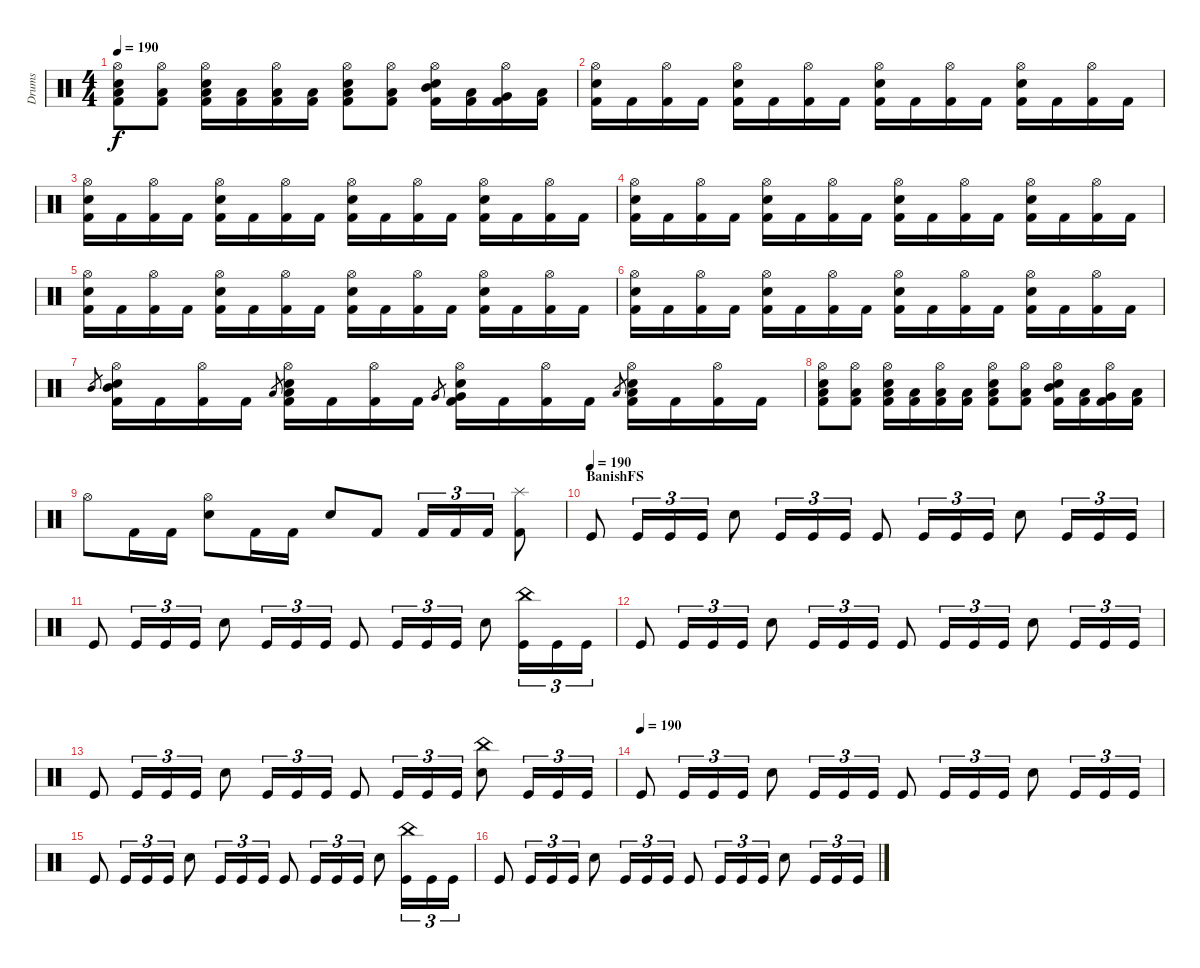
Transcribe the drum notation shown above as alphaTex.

\track ("Drums" "Drums") {instrument percussion}
\staff {score}
\articulation defaults
\ts (4 4)
\tempo 190
\clef neutral
\ks c
("Hi-Hat (open)" "Low Floor Tom (hit)" "Electric Snare (hit)" "Kick (hit) 2").8{dy f} ("Hi-Hat (open)" "Low Floor Tom (hit)" "Kick (hit) 2").8 ("Hi-Hat (open)" "Low Floor Tom (hit)" "Electric Snare (hit)" "Kick (hit) 2").16 ("Low Floor Tom (hit)" "Kick (hit) 2").16 ("Hi-Hat (open)" "Low Floor Tom (hit)" "Kick (hit) 2").16 ("Low Floor Tom (hit)" "Kick (hit) 2").16 ("Hi-Hat (open)" "Low Floor Tom (hit)" "Electric Snare (hit)" "Kick (hit) 2").8 ("Hi-Hat (open)" "Low Floor Tom (hit)" "Kick (hit) 2").8 ("Hi-Hat (open)" "Mid Tom (hit)" "Electric Snare (hit)" "Kick (hit) 2").16 ("Low Tom (hit)" "Kick (hit) 2").16 ("Hi-Hat (open)" "Very Low Tom (hit)" "Kick (hit) 2").16 ("Low Floor Tom (hit)" "Kick (hit) 2").16 |
("Hi-Hat (open)" "Electric Snare (hit)" "Kick (hit) 2").16 "Kick (hit) 2".16 ("Hi-Hat (open)" "Kick (hit) 2").16 "Kick (hit) 2".16 ("Hi-Hat (open)" "Electric Snare (hit)" "Kick (hit) 2").16 "Kick (hit) 2".16 ("Hi-Hat (open)" "Kick (hit) 2").16 "Kick (hit) 2".16 ("Hi-Hat (open)" "Electric Snare (hit)" "Kick (hit) 2").16 "Kick (hit) 2".16 ("Hi-Hat (open)" "Kick (hit) 2").16 "Kick (hit) 2".16 ("Hi-Hat (open)" "Electric Snare (hit)" "Kick (hit) 2").16 "Kick (hit) 2".16 ("Hi-Hat (open)" "Kick (hit) 2").16 "Kick (hit) 2".16 |
("Hi-Hat (open)" "Electric Snare (hit)" "Kick (hit) 2").16 "Kick (hit) 2".16 ("Hi-Hat (open)" "Kick (hit) 2").16 "Kick (hit) 2".16 ("Hi-Hat (open)" "Electric Snare (hit)" "Kick (hit) 2").16 "Kick (hit) 2".16 ("Hi-Hat (open)" "Kick (hit) 2").16 "Kick (hit) 2".16 ("Hi-Hat (open)" "Electric Snare (hit)" "Kick (hit) 2").16 "Kick (hit) 2".16 ("Hi-Hat (open)" "Kick (hit) 2").16 "Kick (hit) 2".16 ("Hi-Hat (open)" "Electric Snare (hit)" "Kick (hit) 2").16 "Kick (hit) 2".16 ("Hi-Hat (open)" "Kick (hit) 2").16 "Kick (hit) 2".16 |
("Hi-Hat (open)" "Electric Snare (hit)" "Kick (hit) 2").16 "Kick (hit) 2".16 ("Hi-Hat (open)" "Kick (hit) 2").16 "Kick (hit) 2".16 ("Hi-Hat (open)" "Electric Snare (hit)" "Kick (hit) 2").16 "Kick (hit) 2".16 ("Hi-Hat (open)" "Kick (hit) 2").16 "Kick (hit) 2".16 ("Hi-Hat (open)" "Electric Snare (hit)" "Kick (hit) 2").16 "Kick (hit) 2".16 ("Hi-Hat (open)" "Kick (hit) 2").16 "Kick (hit) 2".16 ("Hi-Hat (open)" "Electric Snare (hit)" "Kick (hit) 2").16 "Kick (hit) 2".16 ("Hi-Hat (open)" "Kick (hit) 2").16 "Kick (hit) 2".16 |
("Hi-Hat (open)" "Electric Snare (hit)" "Kick (hit) 2").16 "Kick (hit) 2".16 ("Hi-Hat (open)" "Kick (hit) 2").16 "Kick (hit) 2".16 ("Hi-Hat (open)" "Electric Snare (hit)" "Kick (hit) 2").16 "Kick (hit) 2".16 ("Hi-Hat (open)" "Kick (hit) 2").16 "Kick (hit) 2".16 ("Hi-Hat (open)" "Electric Snare (hit)" "Kick (hit) 2").16 "Kick (hit) 2".16 ("Hi-Hat (open)" "Kick (hit) 2").16 "Kick (hit) 2".16 ("Hi-Hat (open)" "Electric Snare (hit)" "Kick (hit) 2").16 "Kick (hit) 2".16 ("Hi-Hat (open)" "Kick (hit) 2").16 "Kick (hit) 2".16 |
("Hi-Hat (open)" "Electric Snare (hit)" "Kick (hit) 2").16 "Kick (hit) 2".16 ("Hi-Hat (open)" "Kick (hit) 2").16 "Kick (hit) 2".16 ("Hi-Hat (open)" "Electric Snare (hit)" "Kick (hit) 2").16 "Kick (hit) 2".16 ("Hi-Hat (open)" "Kick (hit) 2").16 "Kick (hit) 2".16 ("Hi-Hat (open)" "Electric Snare (hit)" "Kick (hit) 2").16 "Kick (hit) 2".16 ("Hi-Hat (open)" "Kick (hit) 2").16 "Kick (hit) 2".16 ("Hi-Hat (open)" "Electric Snare (hit)" "Kick (hit) 2").16 "Kick (hit) 2".16 ("Hi-Hat (open)" "Kick (hit) 2").16 "Kick (hit) 2".16 |
"Mid Tom (hit)".8{gr} ("Hi-Hat (open)" "Mid Tom (hit)" "Electric Snare (hit)" "Kick (hit) 2").16 "Kick (hit) 2".16 ("Hi-Hat (open)" "Kick (hit) 2").16 "Kick (hit) 2".16 "Low Tom (hit)".8{gr} ("Hi-Hat (open)" "Low Tom (hit)" "Electric Snare (hit)" "Kick (hit) 2").16 "Kick (hit) 2".16 ("Hi-Hat (open)" "Kick (hit) 2").16 "Kick (hit) 2".16 "Very Low Tom (hit)".8{gr} ("Hi-Hat (open)" "Very Low Tom (hit)" "Electric Snare (hit)" "Kick (hit) 2").16 "Kick (hit) 2".16 ("Hi-Hat (open)" "Kick (hit) 2").16 "Kick (hit) 2".16 "Low Floor Tom (hit)".8{gr} ("Hi-Hat (open)" "Low Floor Tom (hit)" "Electric Snare (hit)" "Kick (hit) 2").16 "Kick (hit) 2".16 ("Hi-Hat (open)" "Kick (hit) 2").16 "Kick (hit) 2".16 |
("Hi-Hat (open)" "Low Floor Tom (hit)" "Electric Snare (hit)" "Kick (hit) 2").8 ("Hi-Hat (open)" "Low Floor Tom (hit)" "Kick (hit) 2").8 ("Hi-Hat (open)" "Low Floor Tom (hit)" "Electric Snare (hit)" "Kick (hit) 2").16 ("Low Floor Tom (hit)" "Kick (hit) 2").16 ("Hi-Hat (open)" "Low Floor Tom (hit)" "Kick (hit) 2").16 ("Low Floor Tom (hit)" "Kick (hit) 2").16 ("Hi-Hat (open)" "Low Floor Tom (hit)" "Electric Snare (hit)" "Kick (hit) 2").8 ("Hi-Hat (open)" "Low Floor Tom (hit)" "Kick (hit) 2").8 ("Hi-Hat (open)" "Mid Tom (hit)" "Electric Snare (hit)" "Kick (hit) 2").16 ("Low Tom (hit)" "Kick (hit) 2").16 ("Hi-Hat (open)" "Very Low Tom (hit)" "Kick (hit) 2").16 ("Low Floor Tom (hit)" "Kick (hit) 2").16 |
"Hi-Hat (open)".8 "Kick (hit) 2".16 "Kick (hit) 2".16 ("Snare (hit) 2" "Hi-Hat (open)").8 "Kick (hit) 2".16 "Kick (hit) 2".16 "Snare (hit) 2".8 "Kick (hit) 2".8 "Kick (hit) 2".16{tu (3 2)} "Kick (hit) 2".16{tu (3 2)} "Kick (hit) 2".16{tu (3 2)} ("Kick (hit) 2" "Splash (hit)").8 |
\section ("" "BanishFS")
\tempo (190)
"Kick (hit)".8 "Kick (hit)".16{tu (3 2)} "Kick (hit)".16{tu (3 2)} "Kick (hit)".16{tu (3 2)} "Snare (hit) 2".8 "Kick (hit)".16{tu (3 2)} "Kick (hit)".16{tu (3 2)} "Kick (hit)".16{tu (3 2)} "Kick (hit)".8 "Kick (hit)".16{tu (3 2)} "Kick (hit)".16{tu (3 2)} "Kick (hit)".16{tu (3 2)} "Snare (hit) 2".8 "Kick (hit)".16{tu (3 2)} "Kick (hit)".16{tu (3 2)} "Kick (hit)".16{tu (3 2)} |
"Kick (hit)".8 "Kick (hit)".16{tu (3 2)} "Kick (hit)".16{tu (3 2)} "Kick (hit)".16{tu (3 2)} "Snare (hit) 2".8 "Kick (hit)".16{tu (3 2)} "Kick (hit)".16{tu (3 2)} "Kick (hit)".16{tu (3 2)} "Kick (hit)".8 "Kick (hit)".16{tu (3 2)} "Kick (hit)".16{tu (3 2)} "Kick (hit)".16{tu (3 2)} "Snare (hit) 2".8 ("Kick (hit)" "China (hit)").16{tu (3 2)} "Kick (hit)".16{tu (3 2)} "Kick (hit)".16{tu (3 2)} |
"Kick (hit)".8 "Kick (hit)".16{tu (3 2)} "Kick (hit)".16{tu (3 2)} "Kick (hit)".16{tu (3 2)} "Snare (hit) 2".8 "Kick (hit)".16{tu (3 2)} "Kick (hit)".16{tu (3 2)} "Kick (hit)".16{tu (3 2)} "Kick (hit)".8 "Kick (hit)".16{tu (3 2)} "Kick (hit)".16{tu (3 2)} "Kick (hit)".16{tu (3 2)} "Snare (hit) 2".8 "Kick (hit)".16{tu (3 2)} "Kick (hit)".16{tu (3 2)} "Kick (hit)".16{tu (3 2)} |
"Kick (hit)".8 "Kick (hit)".16{tu (3 2)} "Kick (hit)".16{tu (3 2)} "Kick (hit)".16{tu (3 2)} "Snare (hit) 2".8 "Kick (hit)".16{tu (3 2)} "Kick (hit)".16{tu (3 2)} "Kick (hit)".16{tu (3 2)} "Kick (hit)".8 "Kick (hit)".16{tu (3 2)} "Kick (hit)".16{tu (3 2)} "Kick (hit)".16{tu (3 2)} ("Snare (hit) 2" "China (hit)").8 "Kick (hit)".16{tu (3 2)} "Kick (hit)".16{tu (3 2)} "Kick (hit)".16{tu (3 2)} |
\tempo (190)
"Kick (hit)".8 "Kick (hit)".16{tu (3 2)} "Kick (hit)".16{tu (3 2)} "Kick (hit)".16{tu (3 2)} "Snare (hit) 2".8 "Kick (hit)".16{tu (3 2)} "Kick (hit)".16{tu (3 2)} "Kick (hit)".16{tu (3 2)} "Kick (hit)".8 "Kick (hit)".16{tu (3 2)} "Kick (hit)".16{tu (3 2)} "Kick (hit)".16{tu (3 2)} "Snare (hit) 2".8 "Kick (hit)".16{tu (3 2)} "Kick (hit)".16{tu (3 2)} "Kick (hit)".16{tu (3 2)} |
"Kick (hit)".8 "Kick (hit)".16{tu (3 2)} "Kick (hit)".16{tu (3 2)} "Kick (hit)".16{tu (3 2)} "Snare (hit) 2".8 "Kick (hit)".16{tu (3 2)} "Kick (hit)".16{tu (3 2)} "Kick (hit)".16{tu (3 2)} "Kick (hit)".8 "Kick (hit)".16{tu (3 2)} "Kick (hit)".16{tu (3 2)} "Kick (hit)".16{tu (3 2)} "Snare (hit) 2".8 ("Kick (hit)" "China (hit)").16{tu (3 2)} "Kick (hit)".16{tu (3 2)} "Kick (hit)".16{tu (3 2)} |
"Kick (hit)".8 "Kick (hit)".16{tu (3 2)} "Kick (hit)".16{tu (3 2)} "Kick (hit)".16{tu (3 2)} "Snare (hit) 2".8 "Kick (hit)".16{tu (3 2)} "Kick (hit)".16{tu (3 2)} "Kick (hit)".16{tu (3 2)} "Kick (hit)".8 "Kick (hit)".16{tu (3 2)} "Kick (hit)".16{tu (3 2)} "Kick (hit)".16{tu (3 2)} "Snare (hit) 2".8 "Kick (hit)".16{tu (3 2)} "Kick (hit)".16{tu (3 2)} "Kick (hit)".16{tu (3 2)}
